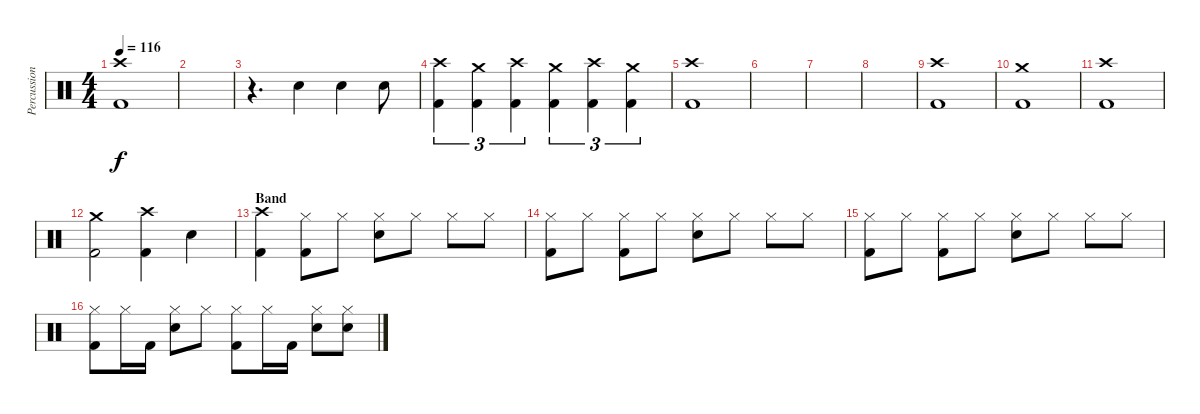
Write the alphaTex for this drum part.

\track ("Percussion" "Percussion") {instrument percussion}
\staff {score}
\articulation defaults
\ts (4 4)
\tempo 116
\clef neutral
\ks c
("Kick (hit) 2" "Crash high (hit)").1{dy f} |
|
r.4{d} "Electric Snare (hit)".4 "Electric Snare (hit)".4 "Electric Snare (hit)".8 |
("Kick (hit) 2" "Crash high (hit)").4{tu (3 2)} ("Kick (hit) 2" "Crash medium (hit)").4{tu (3 2)} ("Kick (hit) 2" "Crash high (hit)").4{tu (3 2)} ("Kick (hit) 2" "Crash medium (hit)").4{tu (3 2)} ("Kick (hit) 2" "Crash high (hit)").4{tu (3 2)} ("Kick (hit) 2" "Crash medium (hit)").4{tu (3 2)} |
("Kick (hit) 2" "Crash high (hit)").1 |
|
|
|
("Kick (hit) 2" "Crash high (hit)").1 |
("Kick (hit) 2" "Crash medium (hit)").1 |
("Kick (hit) 2" "Crash high (hit)").1 |
("Kick (hit) 2" "Crash medium (hit)").2 ("Kick (hit) 2" "Crash high (hit)").4 "Electric Snare (hit)".4 |
\section ("" "Band")
("Kick (hit) 2" "Crash high (hit)").4 ("Kick (hit) 2" "Hi-Hat (closed)").8 "Hi-Hat (closed)".8 ("Electric Snare (hit)" "Hi-Hat (closed)").8 "Hi-Hat (closed)".8 "Hi-Hat (closed)".8 "Hi-Hat (closed)".8 |
("Kick (hit) 2" "Hi-Hat (closed)").8 "Hi-Hat (closed)".8 ("Kick (hit) 2" "Hi-Hat (closed)").8 "Hi-Hat (closed)".8 ("Electric Snare (hit)" "Hi-Hat (closed)").8 "Hi-Hat (closed)".8 "Hi-Hat (closed)".8 "Hi-Hat (closed)".8 |
("Kick (hit) 2" "Hi-Hat (closed)").8 "Hi-Hat (closed)".8 ("Kick (hit) 2" "Hi-Hat (closed)").8 "Hi-Hat (closed)".8 ("Electric Snare (hit)" "Hi-Hat (closed)").8 "Hi-Hat (closed)".8 "Hi-Hat (closed)".8 "Hi-Hat (closed)".8 |
("Kick (hit) 2" "Hi-Hat (closed)").8 "Hi-Hat (closed)".16 "Kick (hit) 2".16 ("Electric Snare (hit)" "Hi-Hat (closed)").8 "Hi-Hat (closed)".8 ("Kick (hit) 2" "Hi-Hat (closed)").8 "Hi-Hat (closed)".16 "Kick (hit) 2".16 ("Electric Snare (hit)" "Hi-Hat (closed)").8 ("Electric Snare (hit)" "Hi-Hat (closed)").8
